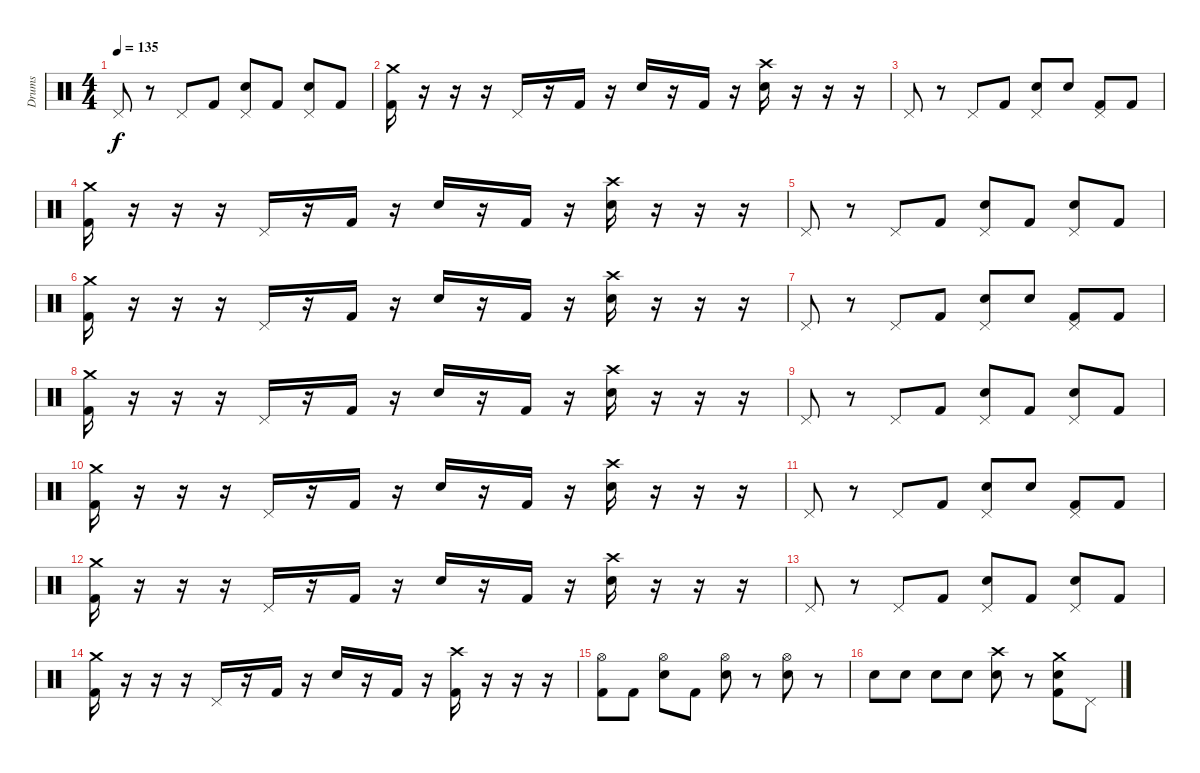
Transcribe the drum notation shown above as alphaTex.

\track ("Drums" "Drums") {instrument percussion}
\staff {score}
\articulation defaults
\ts (4 4)
\tempo 135
\clef neutral
\ks c "Pedal Hi-Hat (hit)".8{dy f}
r.8 "Pedal Hi-Hat (hit)".8 "Kick (hit) 2".8 ("Pedal Hi-Hat (hit)" "Snare (hit) 2").8 "Kick (hit) 2".8 ("Pedal Hi-Hat (hit)" "Snare (hit) 2").8 "Kick (hit) 2".8 |
("Crash medium (hit)" "Kick (hit) 2").16 r.16 r.16 r.16 "Pedal Hi-Hat (hit)".16 r.16 "Kick (hit) 2".16 r.16 "Snare (hit) 2".16 r.16 "Kick (hit) 2".16 r.16 ("Crash high (hit)" "Snare (hit) 2").16 r.16 r.16 r.16 |
"Pedal Hi-Hat (hit)".8 r.8 "Pedal Hi-Hat (hit)".8 "Kick (hit) 2".8 ("Pedal Hi-Hat (hit)" "Snare (hit) 2").8 "Snare (hit) 2".8 ("Pedal Hi-Hat (hit)" "Kick (hit) 2").8 "Kick (hit) 2".8 |
("Crash medium (hit)" "Kick (hit) 2").16 r.16 r.16 r.16 "Pedal Hi-Hat (hit)".16 r.16 "Kick (hit) 2".16 r.16 "Snare (hit) 2".16 r.16 "Kick (hit) 2".16 r.16 ("Crash high (hit)" "Snare (hit) 2").16 r.16 r.16 r.16 |
"Pedal Hi-Hat (hit)".8 r.8 "Pedal Hi-Hat (hit)".8 "Kick (hit) 2".8 ("Pedal Hi-Hat (hit)" "Snare (hit) 2").8 "Kick (hit) 2".8 ("Pedal Hi-Hat (hit)" "Snare (hit) 2").8 "Kick (hit) 2".8 |
("Crash medium (hit)" "Kick (hit) 2").16 r.16 r.16 r.16 "Pedal Hi-Hat (hit)".16 r.16 "Kick (hit) 2".16 r.16 "Snare (hit) 2".16 r.16 "Kick (hit) 2".16 r.16 ("Crash high (hit)" "Snare (hit) 2").16 r.16 r.16 r.16 |
"Pedal Hi-Hat (hit)".8 r.8 "Pedal Hi-Hat (hit)".8 "Kick (hit) 2".8 ("Pedal Hi-Hat (hit)" "Snare (hit) 2").8 "Snare (hit) 2".8 ("Pedal Hi-Hat (hit)" "Kick (hit) 2").8 "Kick (hit) 2".8 |
("Crash medium (hit)" "Kick (hit) 2").16 r.16 r.16 r.16 "Pedal Hi-Hat (hit)".16 r.16 "Kick (hit) 2".16 r.16 "Snare (hit) 2".16 r.16 "Kick (hit) 2".16 r.16 ("Crash high (hit)" "Snare (hit) 2").16 r.16 r.16 r.16 |
"Pedal Hi-Hat (hit)".8 r.8 "Pedal Hi-Hat (hit)".8 "Kick (hit) 2".8 ("Pedal Hi-Hat (hit)" "Snare (hit) 2").8 "Kick (hit) 2".8 ("Pedal Hi-Hat (hit)" "Snare (hit) 2").8 "Kick (hit) 2".8 |
("Crash medium (hit)" "Kick (hit) 2").16 r.16 r.16 r.16 "Pedal Hi-Hat (hit)".16 r.16 "Kick (hit) 2".16 r.16 "Snare (hit) 2".16 r.16 "Kick (hit) 2".16 r.16 ("Crash high (hit)" "Snare (hit) 2").16 r.16 r.16 r.16 |
"Pedal Hi-Hat (hit)".8 r.8 "Pedal Hi-Hat (hit)".8 "Kick (hit) 2".8 ("Pedal Hi-Hat (hit)" "Snare (hit) 2").8 "Snare (hit) 2".8 ("Pedal Hi-Hat (hit)" "Kick (hit) 2").8 "Kick (hit) 2".8 |
("Crash medium (hit)" "Kick (hit) 2").16 r.16 r.16 r.16 "Pedal Hi-Hat (hit)".16 r.16 "Kick (hit) 2".16 r.16 "Snare (hit) 2".16 r.16 "Kick (hit) 2".16 r.16 ("Crash high (hit)" "Snare (hit) 2").16 r.16 r.16 r.16 |
"Pedal Hi-Hat (hit)".8 r.8 "Pedal Hi-Hat (hit)".8 "Kick (hit) 2".8 ("Pedal Hi-Hat (hit)" "Snare (hit) 2").8 "Kick (hit) 2".8 ("Pedal Hi-Hat (hit)" "Snare (hit) 2").8 "Kick (hit) 2".8 |
("Crash medium (hit)" "Kick (hit) 2").16 r.16 r.16 r.16 "Pedal Hi-Hat (hit)".16 r.16 "Kick (hit) 2".16 r.16 "Snare (hit) 2".16 r.16 "Kick (hit) 2".16 r.16 ("Crash high (hit)" "Kick (hit) 2").16 r.16 r.16 r.16 |
("Hi-Hat (open)" "Kick (hit) 2").8 "Kick (hit) 2".8 ("Hi-Hat (open)" "Snare (hit) 2").8 "Kick (hit) 2".8 ("Hi-Hat (open)" "Snare (hit) 2").8 r.8 ("Hi-Hat (open)" "Snare (hit) 2").8 r.8 |
"Snare (hit) 2".8 "Snare (hit) 2".8 "Snare (hit) 2".8 "Snare (hit) 2".8 ("Crash high (hit)" "Snare (hit) 2").8 r.8 ("Crash medium (hit)" "Snare (hit) 2" "Kick (hit) 2").8 "Pedal Hi-Hat (hit)".8
